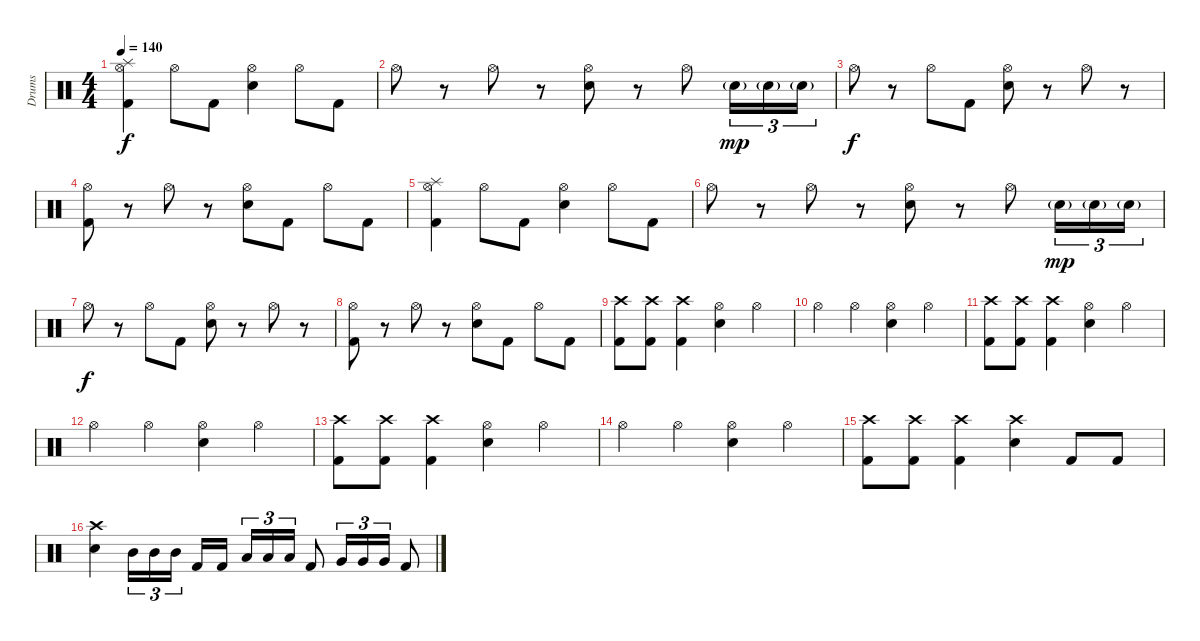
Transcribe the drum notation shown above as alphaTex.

\track ("Drums" "Drums") {instrument percussion}
\staff {score}
\articulation defaults
\ts (4 4)
\tempo 140
\clef neutral
\ks c
("Hi-Hat (open)" "Splash (hit)" "Kick (hit) 2").4{dy f} "Hi-Hat (open)".8 "Kick (hit) 2".8 ("Hi-Hat (open)" "Electric Snare (hit)").4 "Hi-Hat (open)".8 "Kick (hit) 2".8 |
"Hi-Hat (open)".8 r.8 "Hi-Hat (open)".8 r.8 ("Hi-Hat (open)" "Electric Snare (hit)").8 r.8 "Hi-Hat (open)".8 "Electric Snare (hit)"{g}.16{tu (3 2) dy mp} "Electric Snare (hit)"{g}.16{tu (3 2)} "Electric Snare (hit)"{g}.16{tu (3 2)} |
"Hi-Hat (open)".8{dy f} r.8 "Hi-Hat (open)".8 "Kick (hit) 2".8 ("Hi-Hat (open)" "Electric Snare (hit)").8 r.8 "Hi-Hat (open)".8 r.8 |
("Hi-Hat (open)" "Kick (hit) 2").8 r.8 "Hi-Hat (open)".8 r.8 ("Hi-Hat (open)" "Electric Snare (hit)").8 "Kick (hit) 2".8 "Hi-Hat (open)".8 "Kick (hit) 2".8 |
("Hi-Hat (open)" "Splash (hit)" "Kick (hit) 2").4 "Hi-Hat (open)".8 "Kick (hit) 2".8 ("Hi-Hat (open)" "Electric Snare (hit)").4 "Hi-Hat (open)".8 "Kick (hit) 2".8 |
"Hi-Hat (open)".8 r.8 "Hi-Hat (open)".8 r.8 ("Hi-Hat (open)" "Electric Snare (hit)").8 r.8 "Hi-Hat (open)".8 "Electric Snare (hit)"{g}.16{tu (3 2) dy mp} "Electric Snare (hit)"{g}.16{tu (3 2)} "Electric Snare (hit)"{g}.16{tu (3 2)} |
"Hi-Hat (open)".8{dy f} r.8 "Hi-Hat (open)".8 "Kick (hit) 2".8 ("Hi-Hat (open)" "Electric Snare (hit)").8 r.8 "Hi-Hat (open)".8 r.8 |
("Hi-Hat (open)" "Kick (hit) 2").8 r.8 "Hi-Hat (open)".8 r.8 ("Hi-Hat (open)" "Electric Snare (hit)").8 "Kick (hit) 2".8 "Hi-Hat (open)".8 "Kick (hit) 2".8 |
("Crash high (hit)" "Kick (hit) 2").8 ("Crash high (hit)" "Kick (hit) 2").8 ("Crash high (hit)" "Kick (hit) 2").4 ("Hi-Hat (open)" "Electric Snare (hit)").4 "Hi-Hat (open)".4 |
"Hi-Hat (open)".4 "Hi-Hat (open)".4 ("Hi-Hat (open)" "Electric Snare (hit)").4 "Hi-Hat (open)".4 |
("Crash high (hit)" "Kick (hit) 2").8 ("Crash high (hit)" "Kick (hit) 2").8 ("Crash high (hit)" "Kick (hit) 2").4 ("Hi-Hat (open)" "Electric Snare (hit)").4 "Hi-Hat (open)".4 |
"Hi-Hat (open)".4 "Hi-Hat (open)".4 ("Hi-Hat (open)" "Electric Snare (hit)").4 "Hi-Hat (open)".4 |
("Crash high (hit)" "Kick (hit) 2").8 ("Crash high (hit)" "Kick (hit) 2").8 ("Crash high (hit)" "Kick (hit) 2").4 ("Hi-Hat (open)" "Electric Snare (hit)").4 "Hi-Hat (open)".4 |
"Hi-Hat (open)".4 "Hi-Hat (open)".4 ("Hi-Hat (open)" "Electric Snare (hit)").4 "Hi-Hat (open)".4 |
("Crash high (hit)" "Kick (hit) 2").8 ("Crash high (hit)" "Kick (hit) 2").8 ("Crash high (hit)" "Kick (hit) 2").4 ("Crash high (hit)" "Electric Snare (hit)").4 "Kick (hit) 2".8 "Kick (hit) 2".8 |
("Crash high (hit)" "Electric Snare (hit)").4 "Mid Tom (hit)".16{tu (3 2)} "Mid Tom (hit)".16{tu (3 2)} "Mid Tom (hit)".16{tu (3 2) beam splitsecondary} "Kick (hit) 2".16 "Kick (hit) 2".16 "Low Tom (hit)".16{tu (3 2)} "Low Tom (hit)".16{tu (3 2)} "Low Tom (hit)".16{tu (3 2)} "Kick (hit) 2".8 "Very Low Tom (hit)".16{tu (3 2)} "Very Low Tom (hit)".16{tu (3 2)} "Very Low Tom (hit)".16{tu (3 2)} "Kick (hit) 2".8
